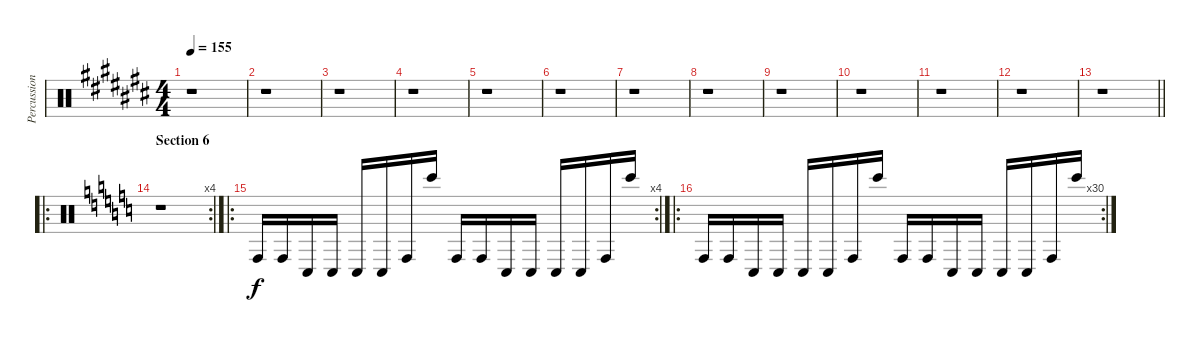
\track ("Percussion" "Percussion") {instrument percussion}
\staff {score}
\articulation defaults
\ts (4 4)
\tempo 155
\clef neutral
\ks c#
r.1{dy f} |
r.1 |
r.1 |
r.1 |
r.1 |
r.1 |
r.1 |
r.1 |
r.1 |
r.1 |
r.1 |
r.1 |
\barLineRight lightlight
r.1 |
\ro
\rc 4
\section ("" "Section 6")
\ks c
r.1 |
\ro
\rc 4 "Conga high (hit)".16 "Conga high (hit)".16 "Conga low (hit)".16 "Conga low (hit)".16 "Conga low (hit)".16 "Conga low (hit)".16 "Conga high (hit)".16 "Bongo High (hit)".16 "Conga high (hit)".16 "Conga high (hit)".16 "Conga low (hit)".16 "Conga low (hit)".16 "Conga low (hit)".16 "Conga low (hit)".16 "Conga high (hit)".16 "Bongo High (hit)".16
|
\ro
\rc 30 "Conga high (hit)".16 "Conga high (hit)".16 "Conga low (hit)".16 "Conga low (hit)".16 "Conga low (hit)".16 "Conga low (hit)".16 "Conga high (hit)".16 "Bongo High (hit)".16 "Conga high (hit)".16 "Conga high (hit)".16 "Conga low (hit)".16 "Conga low (hit)".16 "Conga low (hit)".16 "Conga low (hit)".16 "Conga high (hit)".16 "Bongo High (hit)".16
